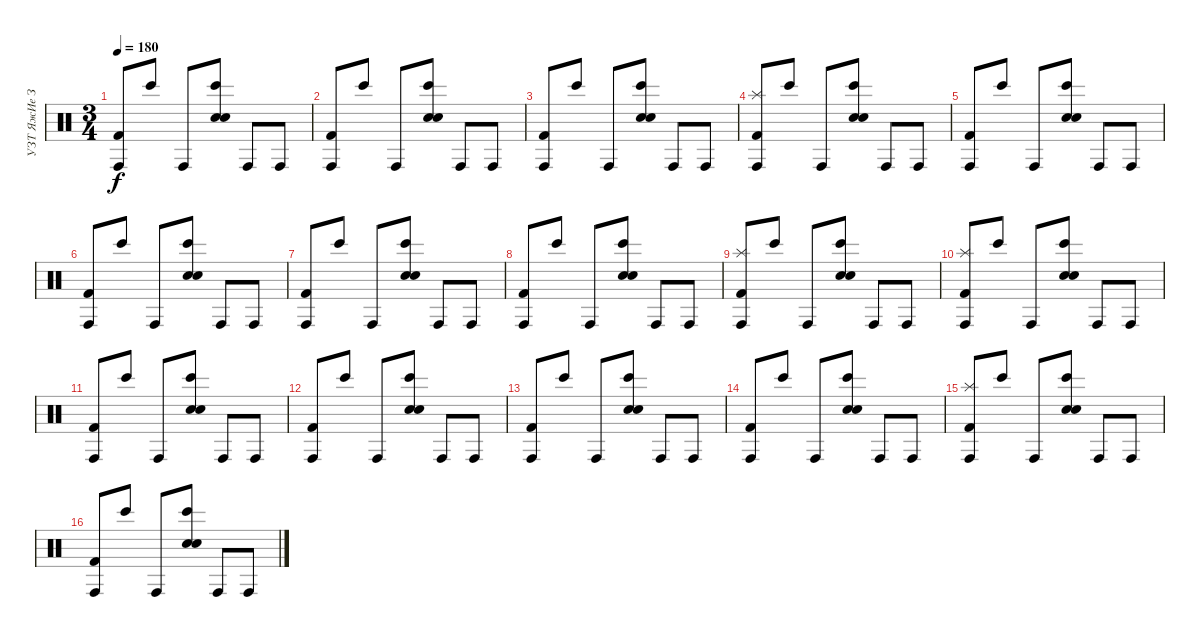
\track ("УЗТ ЯжИе Зн" "УЗТ ЯжИе З") {instrument percussion}
\staff {score}
\articulation defaults
\ts (3 4)
\tempo 180
\clef neutral
\ks c
("Conga high (hit)" "Kick (hit) 2").8{dy f} "Bongo High (hit)".8 "Conga high (hit)".8 ("Bongo High (hit)" "Snare (hit) 2" "Hand Clap (hit)").8 "Conga high (hit)".8 "Conga high (hit)".8 |
("Conga high (hit)" "Kick (hit) 2").8 "Bongo High (hit)".8 "Conga high (hit)".8 ("Bongo High (hit)" "Snare (hit) 2" "Hand Clap (hit)").8 "Conga high (hit)".8 "Conga high (hit)".8 |
("Conga high (hit)" "Kick (hit) 2").8 "Bongo High (hit)".8 "Conga high (hit)".8 ("Bongo High (hit)" "Snare (hit) 2" "Hand Clap (hit)").8 "Conga high (hit)".8 "Conga high (hit)".8 |
("Conga high (hit)" "Kick (hit) 2" "Splash (hit)").8 "Bongo High (hit)".8 "Conga high (hit)".8 ("Bongo High (hit)" "Snare (hit) 2" "Hand Clap (hit)").8 "Conga high (hit)".8 "Conga high (hit)".8 |
("Conga high (hit)" "Kick (hit) 2").8 "Bongo High (hit)".8 "Conga high (hit)".8 ("Bongo High (hit)" "Snare (hit) 2" "Hand Clap (hit)").8 "Conga high (hit)".8 "Conga high (hit)".8 |
("Conga high (hit)" "Kick (hit) 2").8 "Bongo High (hit)".8 "Conga high (hit)".8 ("Bongo High (hit)" "Snare (hit) 2" "Hand Clap (hit)").8 "Conga high (hit)".8 "Conga high (hit)".8 |
("Conga high (hit)" "Kick (hit) 2").8 "Bongo High (hit)".8 "Conga high (hit)".8 ("Bongo High (hit)" "Snare (hit) 2" "Hand Clap (hit)").8 "Conga high (hit)".8 "Conga high (hit)".8 |
("Conga high (hit)" "Kick (hit) 2").8 "Bongo High (hit)".8 "Conga high (hit)".8 ("Bongo High (hit)" "Snare (hit) 2" "Hand Clap (hit)").8 "Conga high (hit)".8 "Conga high (hit)".8 |
("Conga high (hit)" "Kick (hit) 2" "Splash (hit)").8 "Bongo High (hit)".8 "Conga high (hit)".8 ("Bongo High (hit)" "Snare (hit) 2" "Hand Clap (hit)").8 "Conga high (hit)".8 "Conga high (hit)".8 |
("Conga high (hit)" "Kick (hit) 2" "Splash (hit)").8 "Bongo High (hit)".8 "Conga high (hit)".8 ("Bongo High (hit)" "Snare (hit) 2" "Hand Clap (hit)").8 "Conga high (hit)".8 "Conga high (hit)".8 |
("Conga high (hit)" "Kick (hit) 2").8 "Bongo High (hit)".8 "Conga high (hit)".8 ("Bongo High (hit)" "Snare (hit) 2" "Hand Clap (hit)").8 "Conga high (hit)".8 "Conga high (hit)".8 |
("Conga high (hit)" "Kick (hit) 2").8 "Bongo High (hit)".8 "Conga high (hit)".8 ("Bongo High (hit)" "Snare (hit) 2" "Hand Clap (hit)").8 "Conga high (hit)".8 "Conga high (hit)".8 |
("Conga high (hit)" "Kick (hit) 2").8 "Bongo High (hit)".8 "Conga high (hit)".8 ("Bongo High (hit)" "Snare (hit) 2" "Hand Clap (hit)").8 "Conga high (hit)".8 "Conga high (hit)".8 |
("Conga high (hit)" "Kick (hit) 2").8 "Bongo High (hit)".8 "Conga high (hit)".8 ("Bongo High (hit)" "Snare (hit) 2" "Hand Clap (hit)").8 "Conga high (hit)".8 "Conga high (hit)".8 |
("Conga high (hit)" "Kick (hit) 2" "Splash (hit)").8 "Bongo High (hit)".8 "Conga high (hit)".8 ("Bongo High (hit)" "Snare (hit) 2" "Hand Clap (hit)").8 "Conga high (hit)".8 "Conga high (hit)".8 |
("Conga high (hit)" "Kick (hit) 2").8 "Bongo High (hit)".8 "Conga high (hit)".8 ("Bongo High (hit)" "Snare (hit) 2" "Hand Clap (hit)").8 "Conga high (hit)".8 "Conga high (hit)".8
